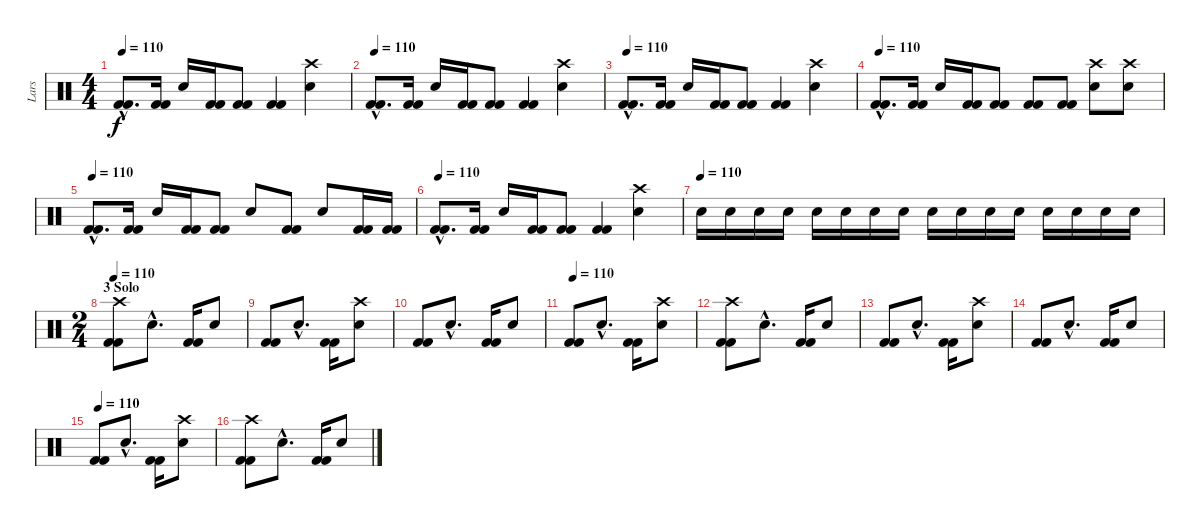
\track ("Lars" "Lars") {instrument percussion}
\staff {score}
\articulation defaults
\ts (4 4)
\tempo 110
\clef neutral
\ks c
("Kick (hit) 2"{hac} "Kick (hit) 2"{hac}).8{d dy f} ("Kick (hit) 2" "Kick (hit) 2").16 "Snare (hit) 2".16 ("Kick (hit) 2" "Kick (hit) 2").16 ("Kick (hit) 2" "Kick (hit) 2").8 ("Kick (hit) 2" "Kick (hit) 2").4 ("Snare (hit) 2" "Crash high (hit)").4 |
\tempo 110
("Kick (hit) 2"{hac} "Kick (hit) 2"{hac}).8{d} ("Kick (hit) 2" "Kick (hit) 2").16 "Snare (hit) 2".16 ("Kick (hit) 2" "Kick (hit) 2").16 ("Kick (hit) 2" "Kick (hit) 2").8 ("Kick (hit) 2" "Kick (hit) 2").4 ("Snare (hit) 2" "Crash high (hit)").4 |
\tempo 110
("Kick (hit) 2"{hac} "Kick (hit) 2"{hac}).8{d} ("Kick (hit) 2" "Kick (hit) 2").16 "Snare (hit) 2".16 ("Kick (hit) 2" "Kick (hit) 2").16 ("Kick (hit) 2" "Kick (hit) 2").8 ("Kick (hit) 2" "Kick (hit) 2").4 ("Snare (hit) 2" "Crash high (hit)").4 |
\tempo 110
("Kick (hit) 2"{hac} "Kick (hit) 2"{hac}).8{d} ("Kick (hit) 2" "Kick (hit) 2").16 "Snare (hit) 2".16 ("Kick (hit) 2" "Kick (hit) 2").16 ("Kick (hit) 2" "Kick (hit) 2").8 ("Kick (hit) 2" "Kick (hit) 2").8 ("Kick (hit) 2" "Kick (hit) 2").8 ("Snare (hit) 2" "Crash high (hit)").8 ("Snare (hit) 2" "Crash high (hit)").8 |
\tempo 110
("Kick (hit) 2"{hac} "Kick (hit) 2"{hac}).8{d} ("Kick (hit) 2" "Kick (hit) 2").16 "Snare (hit) 2".16 ("Kick (hit) 2" "Kick (hit) 2").16 ("Kick (hit) 2" "Kick (hit) 2").8 "Snare (hit) 2".8 ("Kick (hit) 2" "Kick (hit) 2").8 "Snare (hit) 2".8 ("Kick (hit) 2" "Kick (hit) 2").16 ("Kick (hit) 2" "Kick (hit) 2").16 |
\tempo 110
("Kick (hit) 2"{hac} "Kick (hit) 2"{hac}).8{d} ("Kick (hit) 2" "Kick (hit) 2").16 "Snare (hit) 2".16 ("Kick (hit) 2" "Kick (hit) 2").16 ("Kick (hit) 2" "Kick (hit) 2").8 ("Kick (hit) 2" "Kick (hit) 2").4 ("Snare (hit) 2" "Crash high (hit)").4 |
\tempo (110)
"Snare (hit) 2".16 "Snare (hit) 2".16 "Snare (hit) 2".16 "Snare (hit) 2".16 "Snare (hit) 2".16 "Snare (hit) 2".16 "Snare (hit) 2".16 "Snare (hit) 2".16 "Snare (hit) 2".16 "Snare (hit) 2".16 "Snare (hit) 2".16 "Snare (hit) 2".16 "Snare (hit) 2".16 "Snare (hit) 2".16 "Snare (hit) 2".16 "Snare (hit) 2".16 |
\ts (2 4)
\section ("" "3 Solo")
\tempo 110
("Crash high (hit)" "Kick (hit) 2" "Kick (hit) 2").8 "Snare (hit) 2"{hac}.8{d} ("Kick (hit) 2" "Kick (hit) 2").16 "Snare (hit) 2".8 |
("Kick (hit) 2" "Kick (hit) 2").8 "Snare (hit) 2"{hac}.8{d} ("Kick (hit) 2" "Kick (hit) 2").16 ("Snare (hit) 2" "Crash high (hit)").8 |
("Kick (hit) 2" "Kick (hit) 2").8 "Snare (hit) 2"{hac}.8{d} ("Kick (hit) 2" "Kick (hit) 2").16 "Snare (hit) 2".8 |
\tempo 110
("Kick (hit) 2" "Kick (hit) 2").8 "Snare (hit) 2"{hac}.8{d} ("Kick (hit) 2" "Kick (hit) 2").16 ("Snare (hit) 2" "Crash high (hit)").8 |
("Crash high (hit)" "Kick (hit) 2" "Kick (hit) 2").8 "Snare (hit) 2"{hac}.8{d} ("Kick (hit) 2" "Kick (hit) 2").16 "Snare (hit) 2".8 |
("Kick (hit) 2" "Kick (hit) 2").8 "Snare (hit) 2"{hac}.8{d} ("Kick (hit) 2" "Kick (hit) 2").16 ("Snare (hit) 2" "Crash high (hit)").8 |
("Kick (hit) 2" "Kick (hit) 2").8 "Snare (hit) 2"{hac}.8{d} ("Kick (hit) 2" "Kick (hit) 2").16 "Snare (hit) 2".8 |
\tempo 110
("Kick (hit) 2" "Kick (hit) 2").8 "Snare (hit) 2"{hac}.8{d} ("Kick (hit) 2" "Kick (hit) 2").16 ("Snare (hit) 2" "Crash high (hit)").8 |
("Crash high (hit)" "Kick (hit) 2" "Kick (hit) 2").8 "Snare (hit) 2"{hac}.8{d} ("Kick (hit) 2" "Kick (hit) 2").16 "Snare (hit) 2".8
